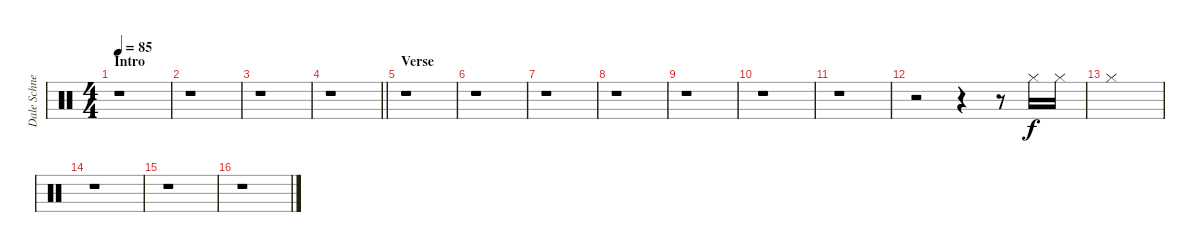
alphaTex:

\track ("Dale Schnettler (Drums)" "Dale Schne") {instrument percussion}
\staff {score}
\articulation defaults
\ts (4 4)
\section ("" "Intro")
\tempo 85
\clef neutral
\ks c
r.1{dy f} |
r.1 |
r.1 |
\barLineRight lightlight
r.1 |
\section ("" "Verse")
r.1 |
r.1 |
r.1 |
r.1 |
r.1 |
r.1 |
r.1 |
r.2 r.4 r.8 "Hi-Hat (closed)".16 "Hi-Hat (closed)".16 |
"Hi-Hat (closed)".1 |
r.1 |
r.1 |
r.1
